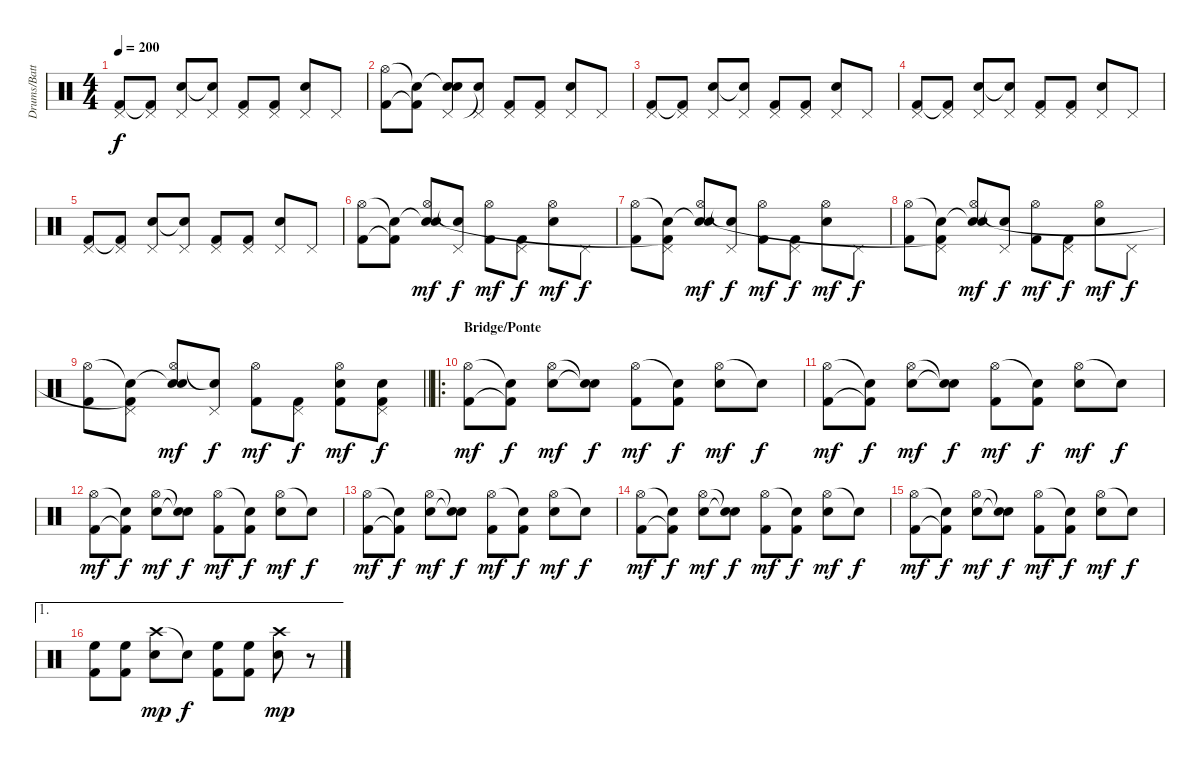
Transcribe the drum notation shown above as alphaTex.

\track ("Drums/Batteria" "Drums/Batt") {instrument percussion}
\staff {score}
\articulation defaults
\ts (4 4)
\tempo 200
\clef neutral
\ks c
("Pedal Hi-Hat (hit)" "Kick (hit) 2").8{dy f} ("Pedal Hi-Hat (hit)" "Kick (hit) 2"{t}).8 ("Pedal Hi-Hat (hit)" "Electric Snare (hit)").8 ("Pedal Hi-Hat (hit)" "Electric Snare (hit)"{t}).8 ("Pedal Hi-Hat (hit)" "Kick (hit) 2").8 ("Pedal Hi-Hat (hit)" "Kick (hit) 2").8 ("Pedal Hi-Hat (hit)" "Electric Snare (hit)").8 "Pedal Hi-Hat (hit)".8 |
("Hi-Hat (open)" "Kick (hit) 2").8 ("Snare (hit)"{t} "Kick (hit) 2"{t}).8 ("Snare (hit)"{t} "Pedal Hi-Hat (hit)" "Electric Snare (hit)").8 ("Pedal Hi-Hat (hit)" "Snare (hit)"{t}).8 ("Pedal Hi-Hat (hit)" "Kick (hit) 2").8 ("Pedal Hi-Hat (hit)" "Kick (hit) 2").8 ("Pedal Hi-Hat (hit)" "Electric Snare (hit)").8 "Pedal Hi-Hat (hit)".8 |
("Pedal Hi-Hat (hit)" "Kick (hit) 2").8 ("Pedal Hi-Hat (hit)" "Kick (hit) 2"{t}).8 ("Pedal Hi-Hat (hit)" "Electric Snare (hit)").8 ("Pedal Hi-Hat (hit)" "Electric Snare (hit)"{t}).8 ("Pedal Hi-Hat (hit)" "Kick (hit) 2").8 ("Pedal Hi-Hat (hit)" "Kick (hit) 2").8 ("Pedal Hi-Hat (hit)" "Electric Snare (hit)").8 "Pedal Hi-Hat (hit)".8 |
("Pedal Hi-Hat (hit)" "Kick (hit) 2").8 ("Pedal Hi-Hat (hit)" "Kick (hit) 2"{t}).8 ("Pedal Hi-Hat (hit)" "Electric Snare (hit)").8 ("Pedal Hi-Hat (hit)" "Electric Snare (hit)"{t}).8 ("Pedal Hi-Hat (hit)" "Kick (hit) 2").8 ("Pedal Hi-Hat (hit)" "Kick (hit) 2").8 ("Pedal Hi-Hat (hit)" "Electric Snare (hit)").8 "Pedal Hi-Hat (hit)".8 |
("Pedal Hi-Hat (hit)" "Kick (hit) 2").8 ("Pedal Hi-Hat (hit)" "Kick (hit) 2"{t}).8 ("Pedal Hi-Hat (hit)" "Electric Snare (hit)").8 ("Pedal Hi-Hat (hit)" "Electric Snare (hit)"{t}).8 ("Pedal Hi-Hat (hit)" "Kick (hit) 2").8 ("Pedal Hi-Hat (hit)" "Kick (hit) 2").8 ("Pedal Hi-Hat (hit)" "Electric Snare (hit)").8 "Pedal Hi-Hat (hit)".8 |
("Hi-Hat (open)" "Kick (hit) 2").8 ("Snare (hit)"{t} "Kick (hit) 2"{t}).8 ("Snare (hit)"{t} "Hi-Hat (open)" "Electric Snare (hit)").8{dy mf} ("Pedal Hi-Hat (hit)" "Snare (hit)"{t}).8{dy f} ("Hi-Hat (open)" "Kick (hit) 2").8{dy mf} ("Pedal Hi-Hat (hit)" "Kick (hit) 2").8{dy f} ("Hi-Hat (open)" "Electric Snare (hit)").8{dy mf} "Pedal Hi-Hat (hit)".8{dy f} |
("Hi-Hat (open)" "Kick (hit) 2").8 ("Snare (hit)"{t} "Pedal Hi-Hat (hit)" "Kick (hit) 2"{t}).8 ("Snare (hit)"{t} "Hi-Hat (open)" "Electric Snare (hit)").8{dy mf} ("Pedal Hi-Hat (hit)" "Snare (hit)"{t}).8{dy f} ("Hi-Hat (open)" "Kick (hit) 2").8{dy mf} ("Pedal Hi-Hat (hit)" "Kick (hit) 2").8{dy f} ("Hi-Hat (open)" "Electric Snare (hit)").8{dy mf} "Pedal Hi-Hat (hit)".8{dy f} |
("Hi-Hat (open)" "Kick (hit) 2").8 ("Snare (hit)"{t} "Pedal Hi-Hat (hit)" "Kick (hit) 2"{t}).8 ("Snare (hit)"{t} "Hi-Hat (open)" "Electric Snare (hit)").8{dy mf} ("Pedal Hi-Hat (hit)" "Snare (hit)"{t}).8{dy f} ("Hi-Hat (open)" "Kick (hit) 2").8{dy mf} ("Pedal Hi-Hat (hit)" "Kick (hit) 2").8{dy f} ("Hi-Hat (open)" "Electric Snare (hit)").8{dy mf} "Pedal Hi-Hat (hit)".8{dy f} |
\barLineRight lightlight
("Hi-Hat (open)" "Kick (hit) 2").8 ("Snare (hit)"{t} "Pedal Hi-Hat (hit)" "Kick (hit) 2"{t}).8 ("Snare (hit)"{t} "Hi-Hat (open)" "Electric Snare (hit)").8{dy mf} ("Pedal Hi-Hat (hit)" "Snare (hit)"{t}).8{dy f} ("Hi-Hat (open)" "Kick (hit) 2").8{dy mf} ("Pedal Hi-Hat (hit)" "Kick (hit) 2").8{dy f} ("Hi-Hat (open)" "Electric Snare (hit)" "Kick (hit) 2").8{dy mf} ("Pedal Hi-Hat (hit)" "Electric Snare (hit)" "Kick (hit) 2").8{dy f} |
\ro
\section ("" "Bridge/Ponte")
("Hi-Hat (open)" "Kick (hit) 2").8{dy mf} ("Snare (hit)"{t} "Kick (hit) 2"{t}).8{dy f} ("Hi-Hat (open)" "Electric Snare (hit)").8{dy mf} ("Snare (hit)"{t} "Snare (hit)"{t}).8{dy f} ("Hi-Hat (open)" "Kick (hit) 2").8{dy mf} ("Snare (hit)"{t} "Kick (hit) 2").8{dy f} ("Hi-Hat (open)" "Electric Snare (hit)").8{dy mf} "Snare (hit)"{t}.8{dy f} |
("Hi-Hat (open)" "Kick (hit) 2").8{dy mf} ("Snare (hit)"{t} "Kick (hit) 2"{t}).8{dy f} ("Hi-Hat (open)" "Electric Snare (hit)").8{dy mf} ("Snare (hit)"{t} "Snare (hit)"{t}).8{dy f} ("Hi-Hat (open)" "Kick (hit) 2").8{dy mf} ("Snare (hit)"{t} "Kick (hit) 2").8{dy f} ("Hi-Hat (open)" "Electric Snare (hit)").8{dy mf} "Snare (hit)"{t}.8{dy f} |
("Hi-Hat (open)" "Kick (hit) 2").8{dy mf} ("Snare (hit)"{t} "Kick (hit) 2"{t}).8{dy f} ("Hi-Hat (open)" "Electric Snare (hit)").8{dy mf} ("Snare (hit)"{t} "Snare (hit)"{t}).8{dy f} ("Hi-Hat (open)" "Kick (hit) 2").8{dy mf} ("Snare (hit)"{t} "Kick (hit) 2").8{dy f} ("Hi-Hat (open)" "Electric Snare (hit)").8{dy mf} "Snare (hit)"{t}.8{dy f} |
("Hi-Hat (open)" "Kick (hit) 2").8{dy mf} ("Snare (hit)"{t} "Kick (hit) 2"{t}).8{dy f} ("Hi-Hat (open)" "Electric Snare (hit)").8{dy mf} ("Snare (hit)"{t} "Snare (hit)"{t}).8{dy f} ("Hi-Hat (open)" "Kick (hit) 2").8{dy mf} ("Snare (hit)"{t} "Kick (hit) 2").8{dy f} ("Hi-Hat (open)" "Electric Snare (hit)").8{dy mf} "Snare (hit)"{t}.8{dy f} |
("Hi-Hat (open)" "Kick (hit) 2").8{dy mf} ("Snare (hit)"{t} "Kick (hit) 2"{t}).8{dy f} ("Hi-Hat (open)" "Electric Snare (hit)").8{dy mf} ("Snare (hit)"{t} "Snare (hit)"{t}).8{dy f} ("Hi-Hat (open)" "Kick (hit) 2").8{dy mf} ("Snare (hit)"{t} "Kick (hit) 2").8{dy f} ("Hi-Hat (open)" "Electric Snare (hit)").8{dy mf} "Snare (hit)"{t}.8{dy f} |
("Hi-Hat (open)" "Kick (hit) 2").8{dy mf} ("Snare (hit)"{t} "Kick (hit) 2"{t}).8{dy f} ("Hi-Hat (open)" "Electric Snare (hit)").8{dy mf} ("Snare (hit)"{t} "Snare (hit)"{t}).8{dy f} ("Hi-Hat (open)" "Kick (hit) 2").8{dy mf} ("Snare (hit)"{t} "Kick (hit) 2").8{dy f} ("Hi-Hat (open)" "Electric Snare (hit)").8{dy mf} "Snare (hit)"{t}.8{dy f} |
\ae 1
("High Floor Tom (hit)" "Kick (hit) 2").8 ("High Floor Tom (hit)" "Kick (hit) 2").8 ("Crash high (hit)" "Electric Snare (hit)").8{dy mp} "Snare (hit)"{t}.8{dy f} ("High Floor Tom (hit)" "Kick (hit) 2").8 ("High Floor Tom (hit)" "Kick (hit) 2").8 ("Crash high (hit)" "Electric Snare (hit)").8{dy mp} r.8
